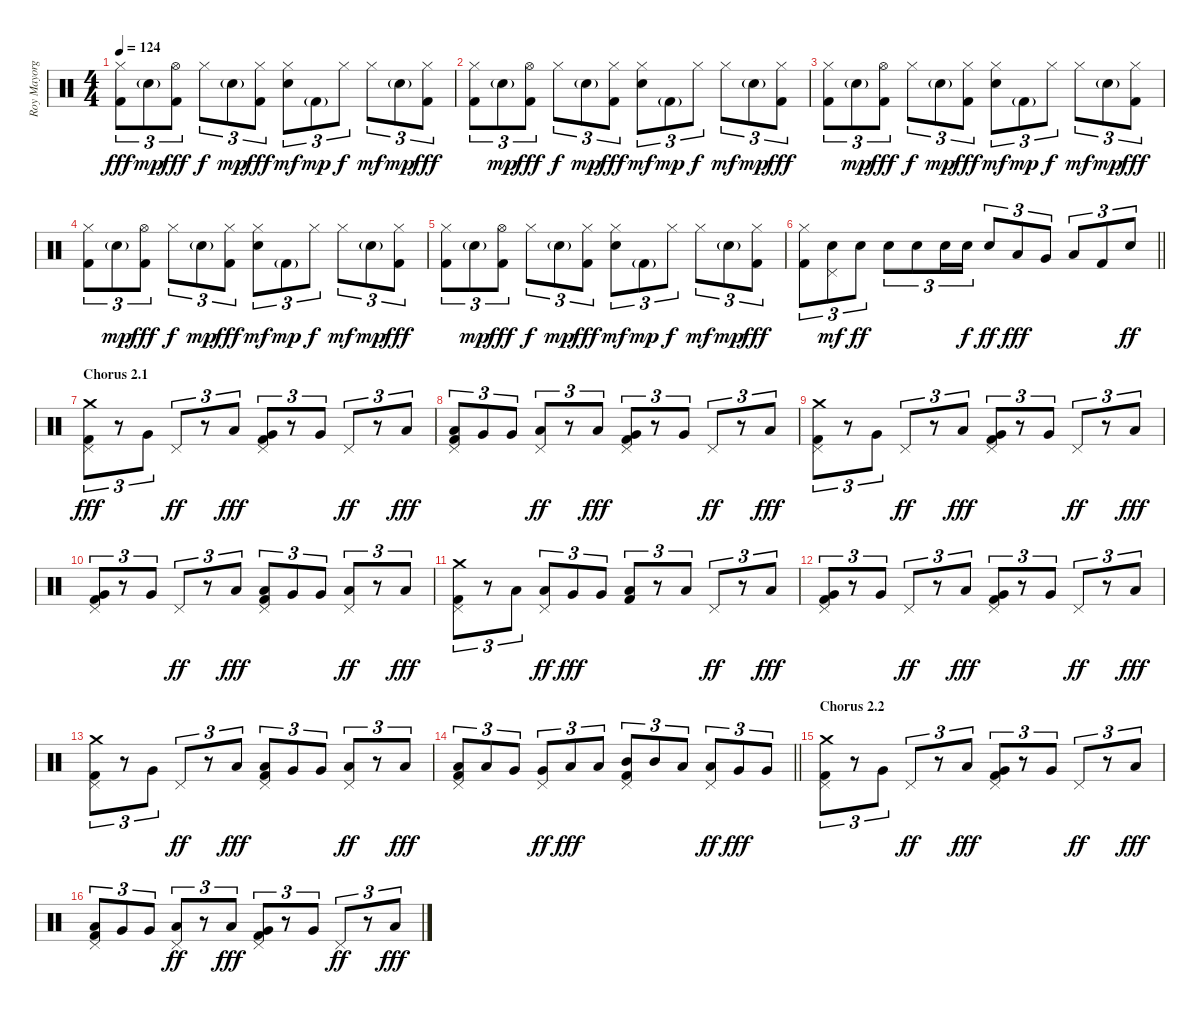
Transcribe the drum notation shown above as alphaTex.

\track ("Roy Mayorga" "Roy Mayorg") {instrument percussion}
\staff {score}
\articulation defaults
\ts (4 4)
\tempo 124
\clef neutral
\ks c
("Hi-Hat (closed)" "Kick (hit) 2").8{tu (3 2) dy fff} "Electric Snare (hit)"{g}.8{tu (3 2) dy mp} ("Hi-Hat (open)" "Kick (hit) 2").8{tu (3 2) dy fff} "Hi-Hat (closed)".8{tu (3 2) dy f} "Electric Snare (hit)"{g}.8{tu (3 2) dy mp} ("Hi-Hat (closed)" "Kick (hit) 2").8{tu (3 2) dy fff} ("Hi-Hat (closed)" "Electric Snare (hit)").8{tu (3 2) dy mf} "Kick (hit) 2"{g}.8{tu (3 2) dy mp} "Hi-Hat (closed)".8{tu (3 2) dy f} "Hi-Hat (closed)".8{tu (3 2) dy mf} "Electric Snare (hit)"{g}.8{tu (3 2) dy mp} ("Hi-Hat (closed)" "Kick (hit) 2").8{tu (3 2) dy fff} |
("Hi-Hat (closed)" "Kick (hit) 2").8{tu (3 2)} "Electric Snare (hit)"{g}.8{tu (3 2) dy mp} ("Hi-Hat (open)" "Kick (hit) 2").8{tu (3 2) dy fff} "Hi-Hat (closed)".8{tu (3 2) dy f} "Electric Snare (hit)"{g}.8{tu (3 2) dy mp} ("Hi-Hat (closed)" "Kick (hit) 2").8{tu (3 2) dy fff} ("Hi-Hat (closed)" "Electric Snare (hit)").8{tu (3 2) dy mf} "Kick (hit) 2"{g}.8{tu (3 2) dy mp} "Hi-Hat (closed)".8{tu (3 2) dy f} "Hi-Hat (closed)".8{tu (3 2) dy mf} "Electric Snare (hit)"{g}.8{tu (3 2) dy mp} ("Hi-Hat (closed)" "Kick (hit) 2").8{tu (3 2) dy fff} |
("Hi-Hat (closed)" "Kick (hit) 2").8{tu (3 2)} "Electric Snare (hit)"{g}.8{tu (3 2) dy mp} ("Hi-Hat (open)" "Kick (hit) 2").8{tu (3 2) dy fff} "Hi-Hat (closed)".8{tu (3 2) dy f} "Electric Snare (hit)"{g}.8{tu (3 2) dy mp} ("Hi-Hat (closed)" "Kick (hit) 2").8{tu (3 2) dy fff} ("Hi-Hat (closed)" "Electric Snare (hit)").8{tu (3 2) dy mf} "Kick (hit) 2"{g}.8{tu (3 2) dy mp} "Hi-Hat (closed)".8{tu (3 2) dy f} "Hi-Hat (closed)".8{tu (3 2) dy mf} "Electric Snare (hit)"{g}.8{tu (3 2) dy mp} ("Hi-Hat (closed)" "Kick (hit) 2").8{tu (3 2) dy fff} |
("Hi-Hat (closed)" "Kick (hit) 2").8{tu (3 2)} "Electric Snare (hit)"{g}.8{tu (3 2) dy mp} ("Hi-Hat (open)" "Kick (hit) 2").8{tu (3 2) dy fff} "Hi-Hat (closed)".8{tu (3 2) dy f} "Electric Snare (hit)"{g}.8{tu (3 2) dy mp} ("Hi-Hat (closed)" "Kick (hit) 2").8{tu (3 2) dy fff} ("Hi-Hat (closed)" "Electric Snare (hit)").8{tu (3 2) dy mf} "Kick (hit) 2"{g}.8{tu (3 2) dy mp} "Hi-Hat (closed)".8{tu (3 2) dy f} "Hi-Hat (closed)".8{tu (3 2) dy mf} "Electric Snare (hit)"{g}.8{tu (3 2) dy mp} ("Hi-Hat (closed)" "Kick (hit) 2").8{tu (3 2) dy fff} |
("Hi-Hat (closed)" "Kick (hit) 2").8{tu (3 2)} "Electric Snare (hit)"{g}.8{tu (3 2) dy mp} ("Hi-Hat (open)" "Kick (hit) 2").8{tu (3 2) dy fff} "Hi-Hat (closed)".8{tu (3 2) dy f} "Electric Snare (hit)"{g}.8{tu (3 2) dy mp} ("Hi-Hat (closed)" "Kick (hit) 2").8{tu (3 2) dy fff} ("Hi-Hat (closed)" "Electric Snare (hit)").8{tu (3 2) dy mf} "Kick (hit) 2"{g}.8{tu (3 2) dy mp} "Hi-Hat (closed)".8{tu (3 2) dy f} "Hi-Hat (closed)".8{tu (3 2) dy mf} "Electric Snare (hit)"{g}.8{tu (3 2) dy mp} ("Hi-Hat (closed)" "Kick (hit) 2").8{tu (3 2) dy fff} |
\barLineRight lightlight
("Hi-Hat (closed)" "Kick (hit) 2").8{tu (3 2)} ("Electric Snare (hit)" "Pedal Hi-Hat (hit)").8{tu (3 2) dy mf} "Electric Snare (hit)".8{tu (3 2) dy ff} "Electric Snare (hit)".8{tu (3 2)} "Electric Snare (hit)".8{tu (3 2)} "Electric Snare (hit)".16{tu (3 2)} "Electric Snare (hit)".16{tu (3 2) dy f} "Electric Snare (hit)".8{tu (3 2) dy ff} "Low Tom (hit)".8{tu (3 2) dy fff} "Very Low Tom (hit)".8{tu (3 2)} "Low Floor Tom (hit)".8{tu (3 2)} "Kick (hit) 2".8{tu (3 2)} "Electric Snare (hit)".8{tu (3 2) dy ff} |
\section ("" "Chorus 2.1")
("Crash medium (hit)" "Pedal Hi-Hat (hit)" "Kick (hit) 2").8{tu (3 2) dy fff} r.8{tu (3 2)} "Very Low Tom (hit)".8{tu (3 2)} "Pedal Hi-Hat (hit)".8{tu (3 2) dy ff} r.8{tu (3 2)} "Low Tom (hit)".8{tu (3 2) dy fff} ("Very Low Tom (hit)" "Pedal Hi-Hat (hit)" "Kick (hit) 2").8{tu (3 2)} r.8{tu (3 2)} "Very Low Tom (hit)".8{tu (3 2)} "Pedal Hi-Hat (hit)".8{tu (3 2) dy ff} r.8{tu (3 2)} "Low Tom (hit)".8{tu (3 2) dy fff} |
("Low Tom (hit)" "Pedal Hi-Hat (hit)" "Kick (hit) 2").8{tu (3 2)} "Very Low Tom (hit)".8{tu (3 2)} "Very Low Tom (hit)".8{tu (3 2)} ("Low Floor Tom (hit)" "Pedal Hi-Hat (hit)").8{tu (3 2) dy ff} r.8{tu (3 2)} "Low Tom (hit)".8{tu (3 2) dy fff} ("Very Low Tom (hit)" "Pedal Hi-Hat (hit)" "Kick (hit) 2").8{tu (3 2)} r.8{tu (3 2)} "Very Low Tom (hit)".8{tu (3 2)} "Pedal Hi-Hat (hit)".8{tu (3 2) dy ff} r.8{tu (3 2)} "Low Tom (hit)".8{tu (3 2) dy fff} |
("Crash medium (hit)" "Pedal Hi-Hat (hit)" "Kick (hit) 2").8{tu (3 2)} r.8{tu (3 2)} "Very Low Tom (hit)".8{tu (3 2)} "Pedal Hi-Hat (hit)".8{tu (3 2) dy ff} r.8{tu (3 2)} "Low Tom (hit)".8{tu (3 2) dy fff} ("Very Low Tom (hit)" "Pedal Hi-Hat (hit)" "Kick (hit) 2").8{tu (3 2)} r.8{tu (3 2)} "Very Low Tom (hit)".8{tu (3 2)} "Pedal Hi-Hat (hit)".8{tu (3 2) dy ff} r.8{tu (3 2)} "Low Tom (hit)".8{tu (3 2) dy fff} |
("Very Low Tom (hit)" "Pedal Hi-Hat (hit)" "Kick (hit) 2").8{tu (3 2)} r.8{tu (3 2)} "Very Low Tom (hit)".8{tu (3 2)} "Pedal Hi-Hat (hit)".8{tu (3 2) dy ff} r.8{tu (3 2)} "Low Tom (hit)".8{tu (3 2) dy fff} ("Low Tom (hit)" "Pedal Hi-Hat (hit)" "Kick (hit) 2").8{tu (3 2)} "Very Low Tom (hit)".8{tu (3 2)} "Very Low Tom (hit)".8{tu (3 2)} ("Low Floor Tom (hit)" "Pedal Hi-Hat (hit)").8{tu (3 2) dy ff} r.8{tu (3 2)} "Low Tom (hit)".8{tu (3 2) dy fff} |
("Crash medium (hit)" "Pedal Hi-Hat (hit)" "Kick (hit) 2").8{tu (3 2)} r.8{tu (3 2)} "Low Tom (hit)".8{tu (3 2)} ("Low Tom (hit)" "Pedal Hi-Hat (hit)").8{tu (3 2) dy ff} "Very Low Tom (hit)".8{tu (3 2) dy fff} "Very Low Tom (hit)".8{tu (3 2)} ("Low Floor Tom (hit)" "Kick (hit) 2").8{tu (3 2)} r.8{tu (3 2)} "Low Floor Tom (hit)".8{tu (3 2)} "Pedal Hi-Hat (hit)".8{tu (3 2) dy ff} r.8{tu (3 2)} "Low Tom (hit)".8{tu (3 2) dy fff} |
("Very Low Tom (hit)" "Pedal Hi-Hat (hit)" "Kick (hit) 2").8{tu (3 2)} r.8{tu (3 2)} "Very Low Tom (hit)".8{tu (3 2)} "Pedal Hi-Hat (hit)".8{tu (3 2) dy ff} r.8{tu (3 2)} "Low Tom (hit)".8{tu (3 2) dy fff} ("Very Low Tom (hit)" "Pedal Hi-Hat (hit)" "Kick (hit) 2").8{tu (3 2)} r.8{tu (3 2)} "Very Low Tom (hit)".8{tu (3 2)} "Pedal Hi-Hat (hit)".8{tu (3 2) dy ff} r.8{tu (3 2)} "Low Tom (hit)".8{tu (3 2) dy fff} |
("Crash medium (hit)" "Pedal Hi-Hat (hit)" "Kick (hit) 2").8{tu (3 2)} r.8{tu (3 2)} "Very Low Tom (hit)".8{tu (3 2)} "Pedal Hi-Hat (hit)".8{tu (3 2) dy ff} r.8{tu (3 2)} "Low Tom (hit)".8{tu (3 2) dy fff} ("Low Tom (hit)" "Pedal Hi-Hat (hit)" "Kick (hit) 2").8{tu (3 2)} "Very Low Tom (hit)".8{tu (3 2)} "Very Low Tom (hit)".8{tu (3 2)} ("Low Floor Tom (hit)" "Pedal Hi-Hat (hit)").8{tu (3 2) dy ff} r.8{tu (3 2)} "Low Tom (hit)".8{tu (3 2) dy fff} |
\barLineRight lightlight
("Low Floor Tom (hit)" "Pedal Hi-Hat (hit)" "Kick (hit) 2").8{tu (3 2)} "Low Floor Tom (hit)".8{tu (3 2)} "Very Low Tom (hit)".8{tu (3 2)} ("Very Low Tom (hit)" "Pedal Hi-Hat (hit)").8{tu (3 2) dy ff} "Low Tom (hit)".8{tu (3 2) dy fff} "Low Tom (hit)".8{tu (3 2)} ("Mid Tom (hit)" "Pedal Hi-Hat (hit)" "Kick (hit) 2").8{tu (3 2)} "Mid Tom (hit)".8{tu (3 2)} "Low Tom (hit)".8{tu (3 2)} ("Low Tom (hit)" "Pedal Hi-Hat (hit)").8{tu (3 2) dy ff} "Very Low Tom (hit)".8{tu (3 2) dy fff} "Very Low Tom (hit)".8{tu (3 2)} |
\section ("" "Chorus 2.2")
("Crash medium (hit)" "Pedal Hi-Hat (hit)" "Kick (hit) 2").8{tu (3 2)} r.8{tu (3 2)} "Very Low Tom (hit)".8{tu (3 2)} "Pedal Hi-Hat (hit)".8{tu (3 2) dy ff} r.8{tu (3 2)} "Low Tom (hit)".8{tu (3 2) dy fff} ("Very Low Tom (hit)" "Pedal Hi-Hat (hit)" "Kick (hit) 2").8{tu (3 2)} r.8{tu (3 2)} "Very Low Tom (hit)".8{tu (3 2)} "Pedal Hi-Hat (hit)".8{tu (3 2) dy ff} r.8{tu (3 2)} "Low Tom (hit)".8{tu (3 2) dy fff} |
("Low Tom (hit)" "Pedal Hi-Hat (hit)" "Kick (hit) 2").8{tu (3 2)} "Very Low Tom (hit)".8{tu (3 2)} "Very Low Tom (hit)".8{tu (3 2)} ("Low Floor Tom (hit)" "Pedal Hi-Hat (hit)").8{tu (3 2) dy ff} r.8{tu (3 2)} "Low Tom (hit)".8{tu (3 2) dy fff} ("Very Low Tom (hit)" "Pedal Hi-Hat (hit)" "Kick (hit) 2").8{tu (3 2)} r.8{tu (3 2)} "Very Low Tom (hit)".8{tu (3 2)} "Pedal Hi-Hat (hit)".8{tu (3 2) dy ff} r.8{tu (3 2)} "Low Tom (hit)".8{tu (3 2) dy fff}
